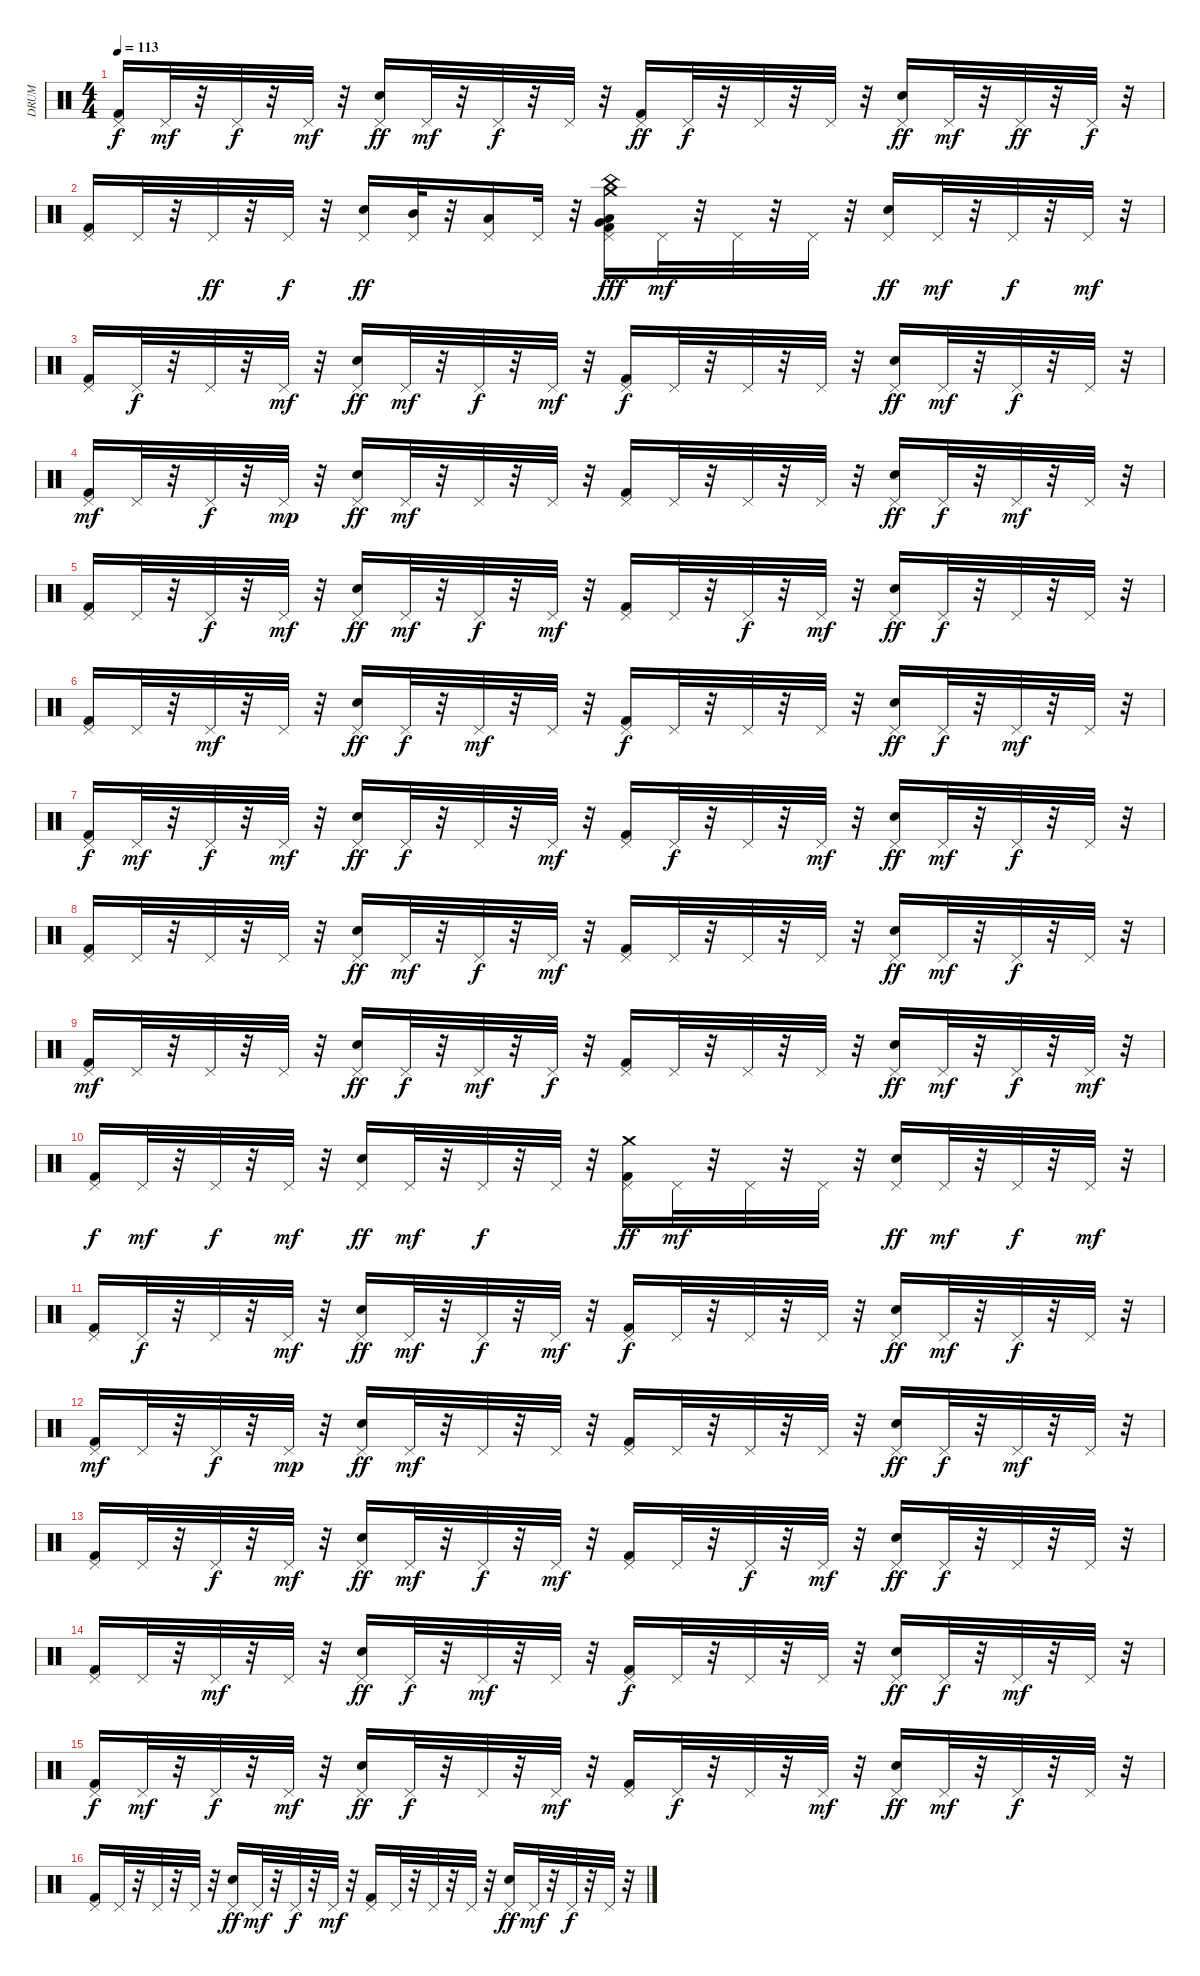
\track ("DRUM" "DRUM") {instrument percussion}
\staff {score}
\articulation defaults
\ts (4 4)
\tempo 113
\clef neutral
\ks c
("Pedal Hi-Hat (hit)" "Kick (hit) 2").16{dy f} "Pedal Hi-Hat (hit)".32{dy mf} r.32 "Pedal Hi-Hat (hit)".32{dy f} r.32 "Pedal Hi-Hat (hit)".32{dy mf} r.32 ("Pedal Hi-Hat (hit)" "Snare (hit) 2").16{dy ff} "Pedal Hi-Hat (hit)".32{dy mf} r.32 "Pedal Hi-Hat (hit)".32{dy f} r.32 "Pedal Hi-Hat (hit)".32 r.32 ("Pedal Hi-Hat (hit)" "Kick (hit) 2").16{dy ff} "Pedal Hi-Hat (hit)".32{dy f} r.32 "Pedal Hi-Hat (hit)".32 r.32 "Pedal Hi-Hat (hit)".32 r.32 ("Pedal Hi-Hat (hit)" "Snare (hit) 2").16{dy ff} "Pedal Hi-Hat (hit)".32{dy mf} r.32 "Pedal Hi-Hat (hit)".32{dy ff} r.32 "Pedal Hi-Hat (hit)".32{dy f} r.32 |
("Pedal Hi-Hat (hit)" "Kick (hit) 2").16 "Pedal Hi-Hat (hit)".32 r.32 "Pedal Hi-Hat (hit)".32{dy ff} r.32 "Pedal Hi-Hat (hit)".32{dy f} r.32 ("Pedal Hi-Hat (hit)" "Snare (hit) 2").16{dy ff} ("Mid Tom (hit)" "Pedal Hi-Hat (hit)").32 r.32 ("Low Tom (hit)" "Pedal Hi-Hat (hit)").16 "Pedal Hi-Hat (hit)".32 r.32 ("Crash medium (hit)" "Pedal Hi-Hat (hit)" "Kick (hit) 2" "Very Low Tom (hit)" "Low Floor Tom (hit)" "China (hit)").16{dy fff} "Pedal Hi-Hat (hit)".32{dy mf} r.32 "Pedal Hi-Hat (hit)".32 r.32 "Pedal Hi-Hat (hit)".32 r.32 ("Pedal Hi-Hat (hit)" "Snare (hit) 2").16{dy ff} "Pedal Hi-Hat (hit)".32{dy mf} r.32 "Pedal Hi-Hat (hit)".32{dy f} r.32 "Pedal Hi-Hat (hit)".32{dy mf} r.32 |
("Pedal Hi-Hat (hit)" "Kick (hit) 2").16 "Pedal Hi-Hat (hit)".32{dy f} r.32 "Pedal Hi-Hat (hit)".32 r.32 "Pedal Hi-Hat (hit)".32{dy mf} r.32 ("Pedal Hi-Hat (hit)" "Snare (hit) 2").16{dy ff} "Pedal Hi-Hat (hit)".32{dy mf} r.32 "Pedal Hi-Hat (hit)".32{dy f} r.32 "Pedal Hi-Hat (hit)".32{dy mf} r.32 ("Pedal Hi-Hat (hit)" "Kick (hit) 2").16{dy f} "Pedal Hi-Hat (hit)".32 r.32 "Pedal Hi-Hat (hit)".32 r.32 "Pedal Hi-Hat (hit)".32 r.32 ("Pedal Hi-Hat (hit)" "Snare (hit) 2").16{dy ff} "Pedal Hi-Hat (hit)".32{dy mf} r.32 "Pedal Hi-Hat (hit)".32{dy f} r.32 "Pedal Hi-Hat (hit)".32 r.32 |
("Pedal Hi-Hat (hit)" "Kick (hit) 2").16{dy mf} "Pedal Hi-Hat (hit)".32 r.32 "Pedal Hi-Hat (hit)".32{dy f} r.32 "Pedal Hi-Hat (hit)".32{dy mp} r.32 ("Pedal Hi-Hat (hit)" "Snare (hit) 2").16{dy ff} "Pedal Hi-Hat (hit)".32{dy mf} r.32 "Pedal Hi-Hat (hit)".32 r.32 "Pedal Hi-Hat (hit)".32 r.32 ("Pedal Hi-Hat (hit)" "Kick (hit) 2").16 "Pedal Hi-Hat (hit)".32 r.32 "Pedal Hi-Hat (hit)".32 r.32 "Pedal Hi-Hat (hit)".32 r.32 ("Pedal Hi-Hat (hit)" "Snare (hit) 2").16{dy ff} "Pedal Hi-Hat (hit)".32{dy f} r.32 "Pedal Hi-Hat (hit)".32{dy mf} r.32 "Pedal Hi-Hat (hit)".32 r.32 |
("Pedal Hi-Hat (hit)" "Kick (hit) 2").16 "Pedal Hi-Hat (hit)".32 r.32 "Pedal Hi-Hat (hit)".32{dy f} r.32 "Pedal Hi-Hat (hit)".32{dy mf} r.32 ("Pedal Hi-Hat (hit)" "Snare (hit) 2").16{dy ff} "Pedal Hi-Hat (hit)".32{dy mf} r.32 "Pedal Hi-Hat (hit)".32{dy f} r.32 "Pedal Hi-Hat (hit)".32{dy mf} r.32 ("Pedal Hi-Hat (hit)" "Kick (hit) 2").16 "Pedal Hi-Hat (hit)".32 r.32 "Pedal Hi-Hat (hit)".32{dy f} r.32 "Pedal Hi-Hat (hit)".32{dy mf} r.32 ("Pedal Hi-Hat (hit)" "Snare (hit) 2").16{dy ff} "Pedal Hi-Hat (hit)".32{dy f} r.32 "Pedal Hi-Hat (hit)".32 r.32 "Pedal Hi-Hat (hit)".32 r.32 |
("Pedal Hi-Hat (hit)" "Kick (hit) 2").16 "Pedal Hi-Hat (hit)".32 r.32 "Pedal Hi-Hat (hit)".32{dy mf} r.32 "Pedal Hi-Hat (hit)".32 r.32 ("Pedal Hi-Hat (hit)" "Snare (hit) 2").16{dy ff} "Pedal Hi-Hat (hit)".32{dy f} r.32 "Pedal Hi-Hat (hit)".32{dy mf} r.32 "Pedal Hi-Hat (hit)".32 r.32 ("Pedal Hi-Hat (hit)" "Kick (hit) 2").16{dy f} "Pedal Hi-Hat (hit)".32 r.32 "Pedal Hi-Hat (hit)".32 r.32 "Pedal Hi-Hat (hit)".32 r.32 ("Pedal Hi-Hat (hit)" "Snare (hit) 2").16{dy ff} "Pedal Hi-Hat (hit)".32{dy f} r.32 "Pedal Hi-Hat (hit)".32{dy mf} r.32 "Pedal Hi-Hat (hit)".32 r.32 |
("Pedal Hi-Hat (hit)" "Kick (hit) 2").16{dy f} "Pedal Hi-Hat (hit)".32{dy mf} r.32 "Pedal Hi-Hat (hit)".32{dy f} r.32 "Pedal Hi-Hat (hit)".32{dy mf} r.32 ("Pedal Hi-Hat (hit)" "Snare (hit) 2").16{dy ff} "Pedal Hi-Hat (hit)".32{dy f} r.32 "Pedal Hi-Hat (hit)".32 r.32 "Pedal Hi-Hat (hit)".32{dy mf} r.32 ("Pedal Hi-Hat (hit)" "Kick (hit) 2").16 "Pedal Hi-Hat (hit)".32{dy f} r.32 "Pedal Hi-Hat (hit)".32 r.32 "Pedal Hi-Hat (hit)".32{dy mf} r.32 ("Pedal Hi-Hat (hit)" "Snare (hit) 2").16{dy ff} "Pedal Hi-Hat (hit)".32{dy mf} r.32 "Pedal Hi-Hat (hit)".32{dy f} r.32 "Pedal Hi-Hat (hit)".32 r.32 |
("Pedal Hi-Hat (hit)" "Kick (hit) 2").16 "Pedal Hi-Hat (hit)".32 r.32 "Pedal Hi-Hat (hit)".32 r.32 "Pedal Hi-Hat (hit)".32 r.32 ("Pedal Hi-Hat (hit)" "Snare (hit) 2").16{dy ff} "Pedal Hi-Hat (hit)".32{dy mf} r.32 "Pedal Hi-Hat (hit)".32{dy f} r.32 "Pedal Hi-Hat (hit)".32{dy mf} r.32 ("Pedal Hi-Hat (hit)" "Kick (hit) 2").16 "Pedal Hi-Hat (hit)".32 r.32 "Pedal Hi-Hat (hit)".32 r.32 "Pedal Hi-Hat (hit)".32 r.32 ("Pedal Hi-Hat (hit)" "Snare (hit) 2").16{dy ff} "Pedal Hi-Hat (hit)".32{dy mf} r.32 "Pedal Hi-Hat (hit)".32{dy f} r.32 "Pedal Hi-Hat (hit)".32 r.32 |
("Pedal Hi-Hat (hit)" "Kick (hit) 2").16{dy mf} "Pedal Hi-Hat (hit)".32 r.32 "Pedal Hi-Hat (hit)".32 r.32 "Pedal Hi-Hat (hit)".32 r.32 ("Pedal Hi-Hat (hit)" "Snare (hit) 2").16{dy ff} "Pedal Hi-Hat (hit)".32{dy f} r.32 "Pedal Hi-Hat (hit)".32{dy mf} r.32 "Pedal Hi-Hat (hit)".32{dy f} r.32 ("Pedal Hi-Hat (hit)" "Kick (hit) 2").16 "Pedal Hi-Hat (hit)".32 r.32 "Pedal Hi-Hat (hit)".32 r.32 "Pedal Hi-Hat (hit)".32 r.32 ("Pedal Hi-Hat (hit)" "Snare (hit) 2").16{dy ff} "Pedal Hi-Hat (hit)".32{dy mf} r.32 "Pedal Hi-Hat (hit)".32{dy f} r.32 "Pedal Hi-Hat (hit)".32{dy mf} r.32 |
("Pedal Hi-Hat (hit)" "Kick (hit) 2").16{dy f} "Pedal Hi-Hat (hit)".32{dy mf} r.32 "Pedal Hi-Hat (hit)".32{dy f} r.32 "Pedal Hi-Hat (hit)".32{dy mf} r.32 ("Pedal Hi-Hat (hit)" "Snare (hit) 2").16{dy ff} "Pedal Hi-Hat (hit)".32{dy mf} r.32 "Pedal Hi-Hat (hit)".32{dy f} r.32 "Pedal Hi-Hat (hit)".32 r.32 ("Crash medium (hit)" "Pedal Hi-Hat (hit)" "Kick (hit) 2").16{dy ff} "Pedal Hi-Hat (hit)".32{dy mf} r.32 "Pedal Hi-Hat (hit)".32 r.32 "Pedal Hi-Hat (hit)".32 r.32 ("Pedal Hi-Hat (hit)" "Snare (hit) 2").16{dy ff} "Pedal Hi-Hat (hit)".32{dy mf} r.32 "Pedal Hi-Hat (hit)".32{dy f} r.32 "Pedal Hi-Hat (hit)".32{dy mf} r.32 |
("Pedal Hi-Hat (hit)" "Kick (hit) 2").16 "Pedal Hi-Hat (hit)".32{dy f} r.32 "Pedal Hi-Hat (hit)".32 r.32 "Pedal Hi-Hat (hit)".32{dy mf} r.32 ("Pedal Hi-Hat (hit)" "Snare (hit) 2").16{dy ff} "Pedal Hi-Hat (hit)".32{dy mf} r.32 "Pedal Hi-Hat (hit)".32{dy f} r.32 "Pedal Hi-Hat (hit)".32{dy mf} r.32 ("Pedal Hi-Hat (hit)" "Kick (hit) 2").16{dy f} "Pedal Hi-Hat (hit)".32 r.32 "Pedal Hi-Hat (hit)".32 r.32 "Pedal Hi-Hat (hit)".32 r.32 ("Pedal Hi-Hat (hit)" "Snare (hit) 2").16{dy ff} "Pedal Hi-Hat (hit)".32{dy mf} r.32 "Pedal Hi-Hat (hit)".32{dy f} r.32 "Pedal Hi-Hat (hit)".32 r.32 |
("Pedal Hi-Hat (hit)" "Kick (hit) 2").16{dy mf} "Pedal Hi-Hat (hit)".32 r.32 "Pedal Hi-Hat (hit)".32{dy f} r.32 "Pedal Hi-Hat (hit)".32{dy mp} r.32 ("Pedal Hi-Hat (hit)" "Snare (hit) 2").16{dy ff} "Pedal Hi-Hat (hit)".32{dy mf} r.32 "Pedal Hi-Hat (hit)".32 r.32 "Pedal Hi-Hat (hit)".32 r.32 ("Pedal Hi-Hat (hit)" "Kick (hit) 2").16 "Pedal Hi-Hat (hit)".32 r.32 "Pedal Hi-Hat (hit)".32 r.32 "Pedal Hi-Hat (hit)".32 r.32 ("Pedal Hi-Hat (hit)" "Snare (hit) 2").16{dy ff} "Pedal Hi-Hat (hit)".32{dy f} r.32 "Pedal Hi-Hat (hit)".32{dy mf} r.32 "Pedal Hi-Hat (hit)".32 r.32 |
("Pedal Hi-Hat (hit)" "Kick (hit) 2").16 "Pedal Hi-Hat (hit)".32 r.32 "Pedal Hi-Hat (hit)".32{dy f} r.32 "Pedal Hi-Hat (hit)".32{dy mf} r.32 ("Pedal Hi-Hat (hit)" "Snare (hit) 2").16{dy ff} "Pedal Hi-Hat (hit)".32{dy mf} r.32 "Pedal Hi-Hat (hit)".32{dy f} r.32 "Pedal Hi-Hat (hit)".32{dy mf} r.32 ("Pedal Hi-Hat (hit)" "Kick (hit) 2").16 "Pedal Hi-Hat (hit)".32 r.32 "Pedal Hi-Hat (hit)".32{dy f} r.32 "Pedal Hi-Hat (hit)".32{dy mf} r.32 ("Pedal Hi-Hat (hit)" "Snare (hit) 2").16{dy ff} "Pedal Hi-Hat (hit)".32{dy f} r.32 "Pedal Hi-Hat (hit)".32 r.32 "Pedal Hi-Hat (hit)".32 r.32 |
("Pedal Hi-Hat (hit)" "Kick (hit) 2").16 "Pedal Hi-Hat (hit)".32 r.32 "Pedal Hi-Hat (hit)".32{dy mf} r.32 "Pedal Hi-Hat (hit)".32 r.32 ("Pedal Hi-Hat (hit)" "Snare (hit) 2").16{dy ff} "Pedal Hi-Hat (hit)".32{dy f} r.32 "Pedal Hi-Hat (hit)".32{dy mf} r.32 "Pedal Hi-Hat (hit)".32 r.32 ("Pedal Hi-Hat (hit)" "Kick (hit) 2").16{dy f} "Pedal Hi-Hat (hit)".32 r.32 "Pedal Hi-Hat (hit)".32 r.32 "Pedal Hi-Hat (hit)".32 r.32 ("Pedal Hi-Hat (hit)" "Snare (hit) 2").16{dy ff} "Pedal Hi-Hat (hit)".32{dy f} r.32 "Pedal Hi-Hat (hit)".32{dy mf} r.32 "Pedal Hi-Hat (hit)".32 r.32 |
("Pedal Hi-Hat (hit)" "Kick (hit) 2").16{dy f} "Pedal Hi-Hat (hit)".32{dy mf} r.32 "Pedal Hi-Hat (hit)".32{dy f} r.32 "Pedal Hi-Hat (hit)".32{dy mf} r.32 ("Pedal Hi-Hat (hit)" "Snare (hit) 2").16{dy ff} "Pedal Hi-Hat (hit)".32{dy f} r.32 "Pedal Hi-Hat (hit)".32 r.32 "Pedal Hi-Hat (hit)".32{dy mf} r.32 ("Pedal Hi-Hat (hit)" "Kick (hit) 2").16 "Pedal Hi-Hat (hit)".32{dy f} r.32 "Pedal Hi-Hat (hit)".32 r.32 "Pedal Hi-Hat (hit)".32{dy mf} r.32 ("Pedal Hi-Hat (hit)" "Snare (hit) 2").16{dy ff} "Pedal Hi-Hat (hit)".32{dy mf} r.32 "Pedal Hi-Hat (hit)".32{dy f} r.32 "Pedal Hi-Hat (hit)".32 r.32 |
("Pedal Hi-Hat (hit)" "Kick (hit) 2").16 "Pedal Hi-Hat (hit)".32 r.32 "Pedal Hi-Hat (hit)".32 r.32 "Pedal Hi-Hat (hit)".32 r.32 ("Pedal Hi-Hat (hit)" "Snare (hit) 2").16{dy ff} "Pedal Hi-Hat (hit)".32{dy mf} r.32 "Pedal Hi-Hat (hit)".32{dy f} r.32 "Pedal Hi-Hat (hit)".32{dy mf} r.32 ("Pedal Hi-Hat (hit)" "Kick (hit) 2").16 "Pedal Hi-Hat (hit)".32 r.32 "Pedal Hi-Hat (hit)".32 r.32 "Pedal Hi-Hat (hit)".32 r.32 ("Pedal Hi-Hat (hit)" "Snare (hit) 2").16{dy ff} "Pedal Hi-Hat (hit)".32{dy mf} r.32 "Pedal Hi-Hat (hit)".32{dy f} r.32 "Pedal Hi-Hat (hit)".32 r.32
